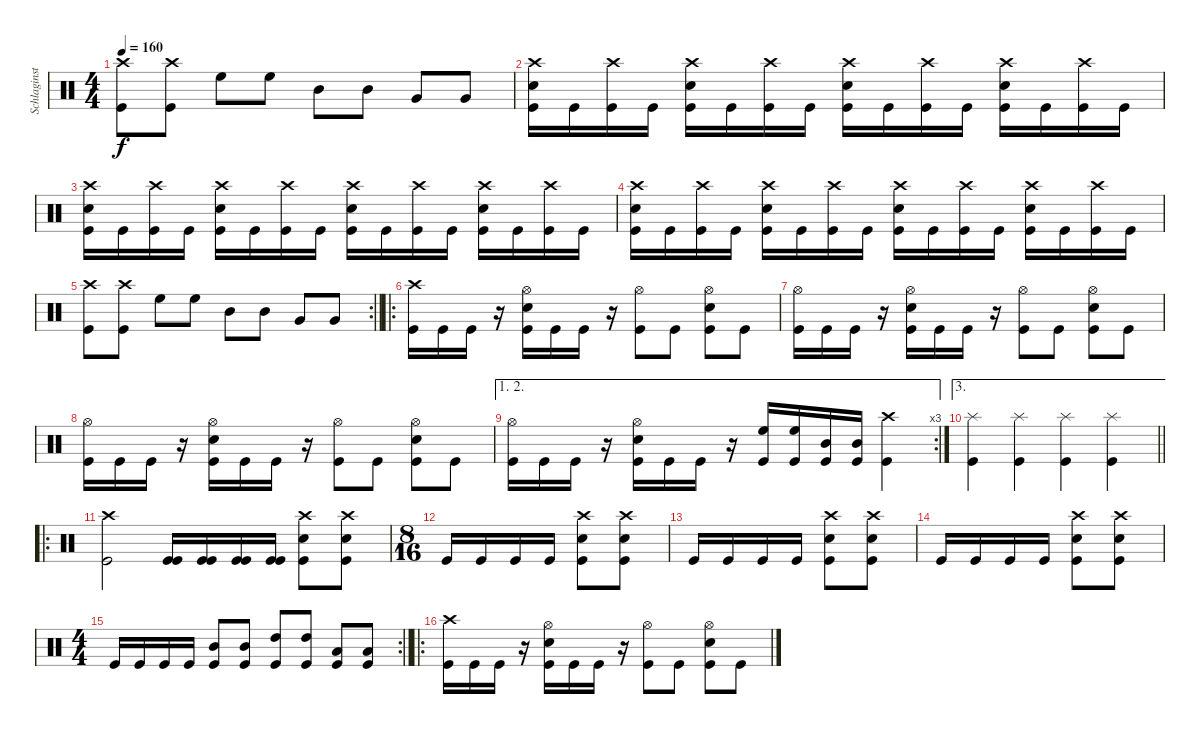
\track ("Schlaginstrumente - Auswahl" "Schlaginst") {solo instrument percussion}
\staff {score}
\articulation defaults
\ts (4 4)
\tempo 160
\clef neutral
\ks c
("Crash high (hit)" "Kick (hit)").8{dy f} ("Crash high (hit)" "Kick (hit)").8 "High Floor Tom (hit)".8 "High Floor Tom (hit)".8 "Mid Tom (hit)".8 "Mid Tom (hit)".8 "Very Low Tom (hit)".8 "Very Low Tom (hit)".8 |
("Kick (hit)" "Crash high (hit)" "Electric Snare (hit)").16 "Kick (hit)".16 ("Kick (hit)" "Crash high (hit)").16 "Kick (hit)".16 ("Kick (hit)" "Crash high (hit)" "Electric Snare (hit)").16 "Kick (hit)".16 ("Kick (hit)" "Crash high (hit)").16 "Kick (hit)".16 ("Kick (hit)" "Crash high (hit)" "Electric Snare (hit)").16 "Kick (hit)".16 ("Kick (hit)" "Crash high (hit)").16 "Kick (hit)".16 ("Kick (hit)" "Crash high (hit)" "Electric Snare (hit)").16 "Kick (hit)".16 ("Kick (hit)" "Crash high (hit)").16 "Kick (hit)".16 |
("Kick (hit)" "Crash high (hit)" "Electric Snare (hit)").16 "Kick (hit)".16 ("Kick (hit)" "Crash high (hit)").16 "Kick (hit)".16 ("Kick (hit)" "Crash high (hit)" "Electric Snare (hit)").16 "Kick (hit)".16 ("Kick (hit)" "Crash high (hit)").16 "Kick (hit)".16 ("Kick (hit)" "Crash high (hit)" "Electric Snare (hit)").16 "Kick (hit)".16 ("Kick (hit)" "Crash high (hit)").16 "Kick (hit)".16 ("Kick (hit)" "Crash high (hit)" "Electric Snare (hit)").16 "Kick (hit)".16 ("Kick (hit)" "Crash high (hit)").16 "Kick (hit)".16 |
("Kick (hit)" "Crash high (hit)" "Electric Snare (hit)").16 "Kick (hit)".16 ("Kick (hit)" "Crash high (hit)").16 "Kick (hit)".16 ("Kick (hit)" "Crash high (hit)" "Electric Snare (hit)").16 "Kick (hit)".16 ("Kick (hit)" "Crash high (hit)").16 "Kick (hit)".16 ("Kick (hit)" "Crash high (hit)" "Electric Snare (hit)").16 "Kick (hit)".16 ("Kick (hit)" "Crash high (hit)").16 "Kick (hit)".16 ("Kick (hit)" "Crash high (hit)" "Electric Snare (hit)").16 "Kick (hit)".16 ("Kick (hit)" "Crash high (hit)").16 "Kick (hit)".16 |
\rc 2
\barLineRight lightlight
("Crash high (hit)" "Kick (hit)").8 ("Crash high (hit)" "Kick (hit)").8 "High Floor Tom (hit)".8 "High Floor Tom (hit)".8 "Mid Tom (hit)".8 "Mid Tom (hit)".8 "Very Low Tom (hit)".8 "Very Low Tom (hit)".8 |
\ro
("Kick (hit)" "Crash high (hit)").16 "Kick (hit)".16 "Kick (hit)".16 r.16 ("Kick (hit)" "Hi-Hat (open)" "Electric Snare (hit)").16 "Kick (hit)".16 "Kick (hit)".16 r.16 ("Kick (hit)" "Hi-Hat (open)").8 "Kick (hit)".8 ("Kick (hit)" "Hi-Hat (open)" "Electric Snare (hit)").8 "Kick (hit)".8 |
("Kick (hit)" "Hi-Hat (open)").16 "Kick (hit)".16 "Kick (hit)".16 r.16 ("Kick (hit)" "Hi-Hat (open)" "Electric Snare (hit)").16 "Kick (hit)".16 "Kick (hit)".16 r.16 ("Kick (hit)" "Hi-Hat (open)").8 "Kick (hit)".8 ("Kick (hit)" "Hi-Hat (open)" "Electric Snare (hit)").8 "Kick (hit)".8 |
("Kick (hit)" "Hi-Hat (open)").16 "Kick (hit)".16 "Kick (hit)".16 r.16 ("Kick (hit)" "Hi-Hat (open)" "Electric Snare (hit)").16 "Kick (hit)".16 "Kick (hit)".16 r.16 ("Kick (hit)" "Hi-Hat (open)").8 "Kick (hit)".8 ("Kick (hit)" "Hi-Hat (open)" "Electric Snare (hit)").8 "Kick (hit)".8 |
\ae (1 2)
\rc 3
("Kick (hit)" "Hi-Hat (open)").16 "Kick (hit)".16 "Kick (hit)".16 r.16 ("Kick (hit)" "Hi-Hat (open)" "Electric Snare (hit)").16 "Kick (hit)".16 "Kick (hit)".16 r.16 ("Kick (hit)" "High Floor Tom (hit)").16 ("Kick (hit)" "High Floor Tom (hit)").16 ("Kick (hit)" "Mid Tom (hit)").16 ("Kick (hit)" "Mid Tom (hit)").16 ("Kick (hit)" "Crash high (hit)").4 |
\ae 3
\barLineRight lightlight
("Kick (hit)" "Splash (hit)").4 ("Kick (hit)" "Splash (hit)").4 ("Kick (hit)" "Splash (hit)").4 ("Kick (hit)" "Splash (hit)").4 |
\ro
("Kick (hit)" "Crash high (hit)").2 ("Kick (hit)" "Kick (hit)").16 ("Kick (hit)" "Kick (hit)").16 ("Kick (hit)" "Kick (hit)").16 ("Kick (hit)" "Kick (hit)").16 ("Kick (hit)" "Crash high (hit)" "Electric Snare (hit)").8 ("Kick (hit)" "Crash high (hit)" "Electric Snare (hit)").8 |
\ts (8 16)
"Kick (hit)".16 "Kick (hit)".16 "Kick (hit)".16 "Kick (hit)".16 ("Kick (hit)" "Electric Snare (hit)" "Crash high (hit)").8 ("Kick (hit)" "Electric Snare (hit)" "Crash high (hit)").8 |
"Kick (hit)".16 "Kick (hit)".16 "Kick (hit)".16 "Kick (hit)".16 ("Kick (hit)" "Electric Snare (hit)" "Crash high (hit)").8 ("Kick (hit)" "Electric Snare (hit)" "Crash high (hit)").8 |
"Kick (hit)".16 "Kick (hit)".16 "Kick (hit)".16 "Kick (hit)".16 ("Kick (hit)" "Electric Snare (hit)" "Crash high (hit)").8 ("Kick (hit)" "Electric Snare (hit)" "Crash high (hit)").8 |
\rc 2
\ts (4 4)
\barLineRight lightlight "Kick (hit)".16 "Kick (hit)".16 "Kick (hit)".16 "Kick (hit)".16
("Kick (hit)" "Mid Tom (hit)").8 ("Kick (hit)" "Mid Tom (hit)").8 ("Kick (hit)" "High Tom (hit)").8 ("Kick (hit)" "High Tom (hit)").8 ("Kick (hit)" "Low Tom (hit)").8 ("Kick (hit)" "Low Tom (hit)").8 |
\ro
("Kick (hit)" "Crash high (hit)").16 "Kick (hit)".16 "Kick (hit)".16 r.16 ("Kick (hit)" "Hi-Hat (open)" "Electric Snare (hit)").16 "Kick (hit)".16 "Kick (hit)".16 r.16 ("Kick (hit)" "Hi-Hat (open)").8 "Kick (hit)".8 ("Kick (hit)" "Hi-Hat (open)" "Electric Snare (hit)").8 "Kick (hit)".8
